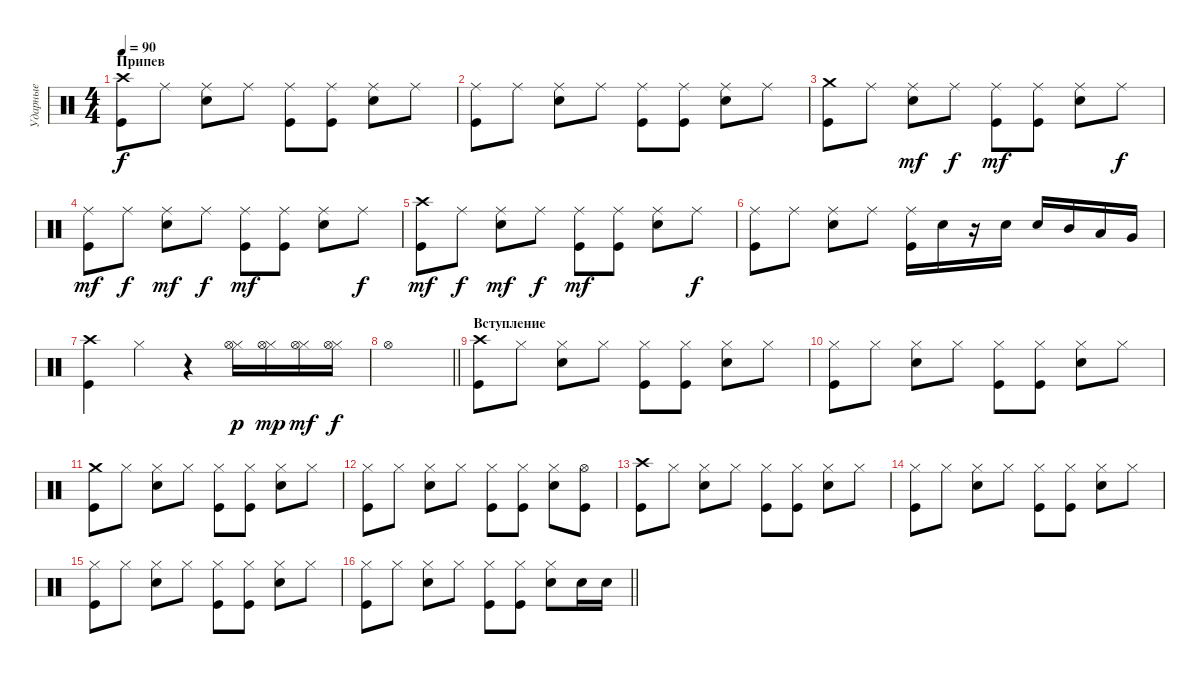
\track ("Ударные" "Ударные") {instrument percussion}
\staff {score}
\articulation defaults
\ts (4 4)
\section ("" "Припев")
\tempo 90
\clef neutral
\ks c
("Crash high (hit)" "Kick (hit)").8{dy f} "Ride (middle)".8 ("Ride (middle)" "Snare (hit) 2").8 "Ride (middle)".8 ("Ride (middle)" "Kick (hit)").8 ("Ride (middle)" "Kick (hit)").8 ("Ride (middle)" "Snare (hit) 2").8 "Ride (middle)".8 |
("Ride (middle)" "Kick (hit)").8 "Ride (middle)".8 ("Ride (middle)" "Snare (hit) 2").8 "Ride (middle)".8 ("Ride (middle)" "Kick (hit)").8 ("Ride (middle)" "Kick (hit)").8 ("Ride (middle)" "Snare (hit) 2").8 "Ride (middle)".8 |
("Crash medium (hit)" "Kick (hit)").8 "Ride (middle)".8 ("Ride (middle)" "Snare (hit) 2").8{dy mf} "Ride (middle)".8{dy f} ("Ride (middle)" "Kick (hit)").8{dy mf} ("Ride (middle)" "Kick (hit)").8 ("Ride (middle)" "Snare (hit) 2").8 "Ride (middle)".8{dy f} |
("Ride (middle)" "Kick (hit)").8{dy mf} "Ride (middle)".8{dy f} ("Ride (middle)" "Snare (hit) 2").8{dy mf} "Ride (middle)".8{dy f} ("Ride (middle)" "Kick (hit)").8{dy mf} ("Ride (middle)" "Kick (hit)").8 ("Ride (middle)" "Snare (hit) 2").8 "Ride (middle)".8{dy f} |
("Crash high (hit)" "Kick (hit)").8{dy mf} "Ride (middle)".8{dy f} ("Ride (middle)" "Snare (hit) 2").8{dy mf} "Ride (middle)".8{dy f} ("Ride (middle)" "Kick (hit)").8{dy mf} ("Ride (middle)" "Kick (hit)").8 ("Ride (middle)" "Snare (hit) 2").8 "Ride (middle)".8{dy f} |
("Ride (middle)" "Kick (hit)").8 "Ride (middle)".8 ("Ride (middle)" "Snare (hit) 2").8 "Ride (middle)".8 ("Ride (middle)" "Kick (hit)").16 "Snare (hit) 2".16 r.16 "Snare (hit) 2".16 "Snare (hit) 2".16 "Mid Tom (hit)".16 "Low Tom (hit)".16 "Very Low Tom (hit)".16 |
("Crash high (hit)" "Kick (hit)").4 "Hi-Hat (closed)".4 r.4 ("Hi-Hat (closed)" "Hi-Hat (open)").16{dy p} ("Hi-Hat (closed)" "Hi-Hat (open)").16{dy mp} ("Hi-Hat (closed)" "Hi-Hat (open)").16{dy mf} ("Hi-Hat (closed)" "Hi-Hat (open)").16{dy f} |
\barLineRight lightlight "Hi-Hat (open)".1
|
\section ("" "Вступление")
("Kick (hit)" "Crash high (hit)").8 "Hi-Hat (closed)".8 ("Hi-Hat (closed)" "Snare (hit) 2").8 "Hi-Hat (closed)".8 ("Hi-Hat (closed)" "Kick (hit)").8 ("Hi-Hat (closed)" "Kick (hit)").8 ("Hi-Hat (closed)" "Snare (hit) 2").8 "Hi-Hat (closed)".8 |
("Kick (hit)" "Hi-Hat (closed)").8 "Hi-Hat (closed)".8 ("Hi-Hat (closed)" "Snare (hit) 2").8 "Hi-Hat (closed)".8 ("Hi-Hat (closed)" "Kick (hit)").8 ("Hi-Hat (closed)" "Kick (hit)").8 ("Hi-Hat (closed)" "Snare (hit) 2").8 "Hi-Hat (closed)".8 |
("Kick (hit)" "Crash medium (hit)").8 "Hi-Hat (closed)".8 ("Hi-Hat (closed)" "Snare (hit) 2").8 "Hi-Hat (closed)".8 ("Hi-Hat (closed)" "Kick (hit)").8 ("Hi-Hat (closed)" "Kick (hit)").8 ("Hi-Hat (closed)" "Snare (hit) 2").8 "Hi-Hat (closed)".8 |
("Kick (hit)" "Hi-Hat (closed)").8 "Hi-Hat (closed)".8 ("Hi-Hat (closed)" "Snare (hit) 2").8 "Hi-Hat (closed)".8 ("Hi-Hat (closed)" "Kick (hit)").8 ("Hi-Hat (closed)" "Kick (hit)").8 ("Hi-Hat (closed)" "Snare (hit) 2").8 ("Hi-Hat (open)" "Kick (hit)").8 |
("Kick (hit)" "Crash high (hit)").8 "Hi-Hat (closed)".8 ("Hi-Hat (closed)" "Snare (hit) 2").8 "Hi-Hat (closed)".8 ("Hi-Hat (closed)" "Kick (hit)").8 ("Hi-Hat (closed)" "Kick (hit)").8 ("Hi-Hat (closed)" "Snare (hit) 2").8 "Hi-Hat (closed)".8 |
("Kick (hit)" "Hi-Hat (closed)").8 "Hi-Hat (closed)".8 ("Hi-Hat (closed)" "Snare (hit) 2").8 "Hi-Hat (closed)".8 ("Hi-Hat (closed)" "Kick (hit)").8 ("Hi-Hat (closed)" "Kick (hit)").8 ("Hi-Hat (closed)" "Snare (hit) 2").8 "Hi-Hat (closed)".8 |
("Kick (hit)" "Hi-Hat (closed)").8 "Hi-Hat (closed)".8 ("Hi-Hat (closed)" "Snare (hit) 2").8 "Hi-Hat (closed)".8 ("Hi-Hat (closed)" "Kick (hit)").8 ("Hi-Hat (closed)" "Kick (hit)").8 ("Hi-Hat (closed)" "Snare (hit) 2").8 "Hi-Hat (closed)".8 |
\barLineRight lightlight
("Kick (hit)" "Hi-Hat (closed)").8 "Hi-Hat (closed)".8 ("Hi-Hat (closed)" "Snare (hit) 2").8 "Hi-Hat (closed)".8 ("Hi-Hat (closed)" "Kick (hit)").8 ("Hi-Hat (closed)" "Kick (hit)").8 ("Hi-Hat (closed)" "Snare (hit) 2").8 "Snare (hit) 2".16 "Snare (hit) 2".16
